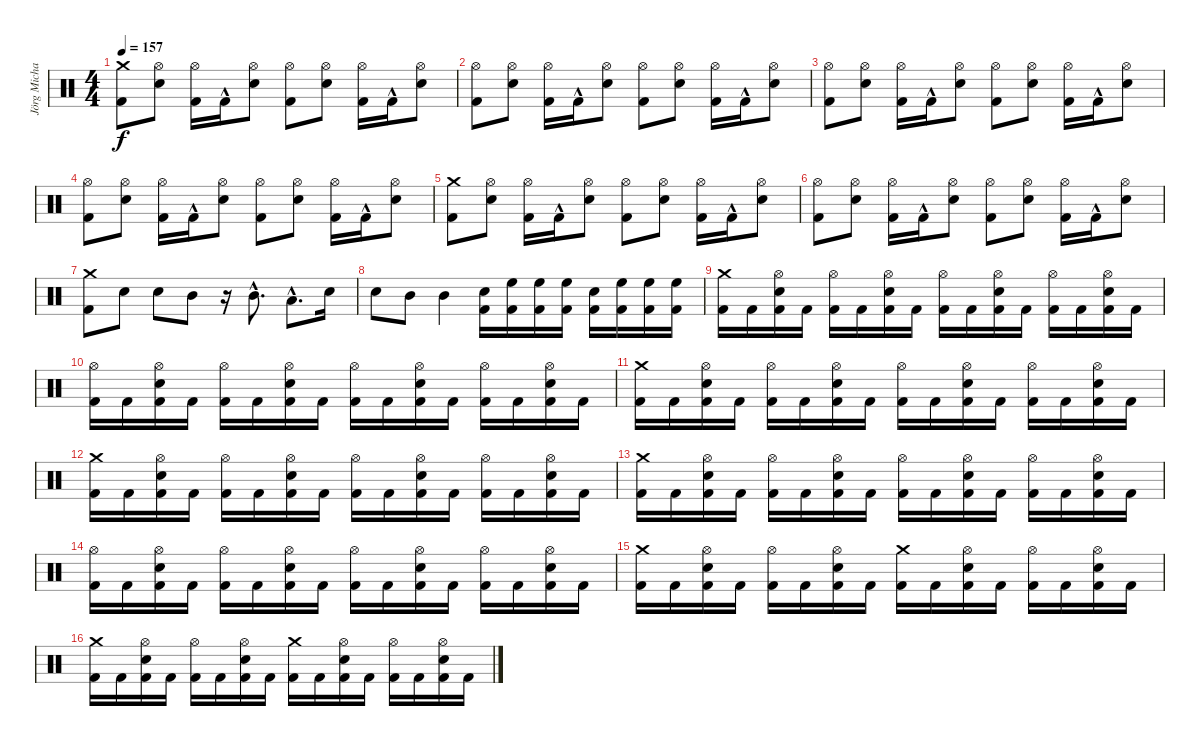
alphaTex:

\track ("Jörg Michael" "Jörg Micha") {instrument percussion}
\staff {score}
\articulation defaults
\ts (4 4)
\tempo 157
\clef neutral
\ks c
("Crash medium (hit)" "Kick (hit) 2").8{dy f} ("Snare (hit) 2" "Hi-Hat (open)").8 ("Kick (hit) 2" "Hi-Hat (open)").16 "Kick (hit) 2"{hac}.16 ("Snare (hit) 2" "Hi-Hat (open)").8 ("Kick (hit) 2" "Hi-Hat (open)").8 ("Snare (hit) 2" "Hi-Hat (open)").8 ("Kick (hit) 2" "Hi-Hat (open)").16 "Kick (hit) 2"{hac}.16 ("Snare (hit) 2" "Hi-Hat (open)").8 |
("Kick (hit) 2" "Hi-Hat (open)").8 ("Snare (hit) 2" "Hi-Hat (open)").8 ("Kick (hit) 2" "Hi-Hat (open)").16 "Kick (hit) 2"{hac}.16 ("Snare (hit) 2" "Hi-Hat (open)").8 ("Kick (hit) 2" "Hi-Hat (open)").8 ("Snare (hit) 2" "Hi-Hat (open)").8 ("Kick (hit) 2" "Hi-Hat (open)").16 "Kick (hit) 2"{hac}.16 ("Snare (hit) 2" "Hi-Hat (open)").8 |
("Kick (hit) 2" "Hi-Hat (open)").8 ("Snare (hit) 2" "Hi-Hat (open)").8 ("Kick (hit) 2" "Hi-Hat (open)").16 "Kick (hit) 2"{hac}.16 ("Snare (hit) 2" "Hi-Hat (open)").8 ("Kick (hit) 2" "Hi-Hat (open)").8 ("Snare (hit) 2" "Hi-Hat (open)").8 ("Kick (hit) 2" "Hi-Hat (open)").16 "Kick (hit) 2"{hac}.16 ("Snare (hit) 2" "Hi-Hat (open)").8 |
("Kick (hit) 2" "Hi-Hat (open)").8 ("Snare (hit) 2" "Hi-Hat (open)").8 ("Kick (hit) 2" "Hi-Hat (open)").16 "Kick (hit) 2"{hac}.16 ("Snare (hit) 2" "Hi-Hat (open)").8 ("Kick (hit) 2" "Hi-Hat (open)").8 ("Snare (hit) 2" "Hi-Hat (open)").8 ("Kick (hit) 2" "Hi-Hat (open)").16 "Kick (hit) 2"{hac}.16 ("Snare (hit) 2" "Hi-Hat (open)").8 |
("Crash medium (hit)" "Kick (hit) 2").8 ("Snare (hit) 2" "Hi-Hat (open)").8 ("Kick (hit) 2" "Hi-Hat (open)").16 "Kick (hit) 2"{hac}.16 ("Snare (hit) 2" "Hi-Hat (open)").8 ("Kick (hit) 2" "Hi-Hat (open)").8 ("Snare (hit) 2" "Hi-Hat (open)").8 ("Kick (hit) 2" "Hi-Hat (open)").16 "Kick (hit) 2"{hac}.16 ("Snare (hit) 2" "Hi-Hat (open)").8 |
("Kick (hit) 2" "Hi-Hat (open)").8 ("Snare (hit) 2" "Hi-Hat (open)").8 ("Kick (hit) 2" "Hi-Hat (open)").16 "Kick (hit) 2"{hac}.16 ("Snare (hit) 2" "Hi-Hat (open)").8 ("Kick (hit) 2" "Hi-Hat (open)").8 ("Snare (hit) 2" "Hi-Hat (open)").8 ("Kick (hit) 2" "Hi-Hat (open)").16 "Kick (hit) 2"{hac}.16 ("Snare (hit) 2" "Hi-Hat (open)").8 |
("Kick (hit) 2" "Crash medium (hit)").8 "Snare (hit) 2".8 "Snare (hit) 2".8 "Mid Tom (hit)".8 r.16 "Mid Tom (hit)"{hac}.8{d} "Low Tom (hit)"{hac}.8{d} "Snare (hit) 2".16 |
"Snare (hit) 2".8 "Mid Tom (hit)".8 "Mid Tom (hit)".4 ("Kick (hit) 2" "Snare (hit) 2").16 ("Kick (hit) 2" "High Floor Tom (hit)").16 ("Kick (hit) 2" "High Floor Tom (hit)").16 ("Kick (hit) 2" "High Floor Tom (hit)").16 ("Kick (hit) 2" "Snare (hit) 2").16 ("Kick (hit) 2" "High Floor Tom (hit)").16 ("Kick (hit) 2" "High Floor Tom (hit)").16 ("Kick (hit) 2" "High Floor Tom (hit)").16 |
("Crash medium (hit)" "Kick (hit) 2").16 "Kick (hit) 2".16 ("Hi-Hat (open)" "Snare (hit) 2" "Kick (hit) 2").16 "Kick (hit) 2".16 ("Hi-Hat (open)" "Kick (hit) 2").16 "Kick (hit) 2".16 ("Hi-Hat (open)" "Snare (hit) 2" "Kick (hit) 2").16 "Kick (hit) 2".16 ("Hi-Hat (open)" "Kick (hit) 2").16 "Kick (hit) 2".16 ("Hi-Hat (open)" "Snare (hit) 2" "Kick (hit) 2").16 "Kick (hit) 2".16 ("Hi-Hat (open)" "Kick (hit) 2").16 "Kick (hit) 2".16 ("Hi-Hat (open)" "Snare (hit) 2" "Kick (hit) 2").16 "Kick (hit) 2".16 |
("Hi-Hat (open)" "Kick (hit) 2").16 "Kick (hit) 2".16 ("Hi-Hat (open)" "Snare (hit) 2" "Kick (hit) 2").16 "Kick (hit) 2".16 ("Hi-Hat (open)" "Kick (hit) 2").16 "Kick (hit) 2".16 ("Hi-Hat (open)" "Snare (hit) 2" "Kick (hit) 2").16 "Kick (hit) 2".16 ("Hi-Hat (open)" "Kick (hit) 2").16 "Kick (hit) 2".16 ("Hi-Hat (open)" "Snare (hit) 2" "Kick (hit) 2").16 "Kick (hit) 2".16 ("Hi-Hat (open)" "Kick (hit) 2").16 "Kick (hit) 2".16 ("Hi-Hat (open)" "Snare (hit) 2" "Kick (hit) 2").16 "Kick (hit) 2".16 |
("Crash medium (hit)" "Kick (hit) 2").16 "Kick (hit) 2".16 ("Hi-Hat (open)" "Snare (hit) 2" "Kick (hit) 2").16 "Kick (hit) 2".16 ("Hi-Hat (open)" "Kick (hit) 2").16 "Kick (hit) 2".16 ("Hi-Hat (open)" "Snare (hit) 2" "Kick (hit) 2").16 "Kick (hit) 2".16 ("Hi-Hat (open)" "Kick (hit) 2").16 "Kick (hit) 2".16 ("Hi-Hat (open)" "Snare (hit) 2" "Kick (hit) 2").16 "Kick (hit) 2".16 ("Hi-Hat (open)" "Kick (hit) 2").16 "Kick (hit) 2".16 ("Hi-Hat (open)" "Snare (hit) 2" "Kick (hit) 2").16 "Kick (hit) 2".16 |
("Crash medium (hit)" "Kick (hit) 2").16 "Kick (hit) 2".16 ("Hi-Hat (open)" "Snare (hit) 2" "Kick (hit) 2").16 "Kick (hit) 2".16 ("Hi-Hat (open)" "Kick (hit) 2").16 "Kick (hit) 2".16 ("Hi-Hat (open)" "Snare (hit) 2" "Kick (hit) 2").16 "Kick (hit) 2".16 ("Hi-Hat (open)" "Kick (hit) 2").16 "Kick (hit) 2".16 ("Hi-Hat (open)" "Snare (hit) 2" "Kick (hit) 2").16 "Kick (hit) 2".16 ("Hi-Hat (open)" "Kick (hit) 2").16 "Kick (hit) 2".16 ("Hi-Hat (open)" "Snare (hit) 2" "Kick (hit) 2").16 "Kick (hit) 2".16 |
("Crash medium (hit)" "Kick (hit) 2").16 "Kick (hit) 2".16 ("Hi-Hat (open)" "Snare (hit) 2" "Kick (hit) 2").16 "Kick (hit) 2".16 ("Hi-Hat (open)" "Kick (hit) 2").16 "Kick (hit) 2".16 ("Hi-Hat (open)" "Snare (hit) 2" "Kick (hit) 2").16 "Kick (hit) 2".16 ("Hi-Hat (open)" "Kick (hit) 2").16 "Kick (hit) 2".16 ("Hi-Hat (open)" "Snare (hit) 2" "Kick (hit) 2").16 "Kick (hit) 2".16 ("Hi-Hat (open)" "Kick (hit) 2").16 "Kick (hit) 2".16 ("Hi-Hat (open)" "Snare (hit) 2" "Kick (hit) 2").16 "Kick (hit) 2".16 |
("Hi-Hat (open)" "Kick (hit) 2").16 "Kick (hit) 2".16 ("Hi-Hat (open)" "Snare (hit) 2" "Kick (hit) 2").16 "Kick (hit) 2".16 ("Hi-Hat (open)" "Kick (hit) 2").16 "Kick (hit) 2".16 ("Hi-Hat (open)" "Snare (hit) 2" "Kick (hit) 2").16 "Kick (hit) 2".16 ("Hi-Hat (open)" "Kick (hit) 2").16 "Kick (hit) 2".16 ("Hi-Hat (open)" "Snare (hit) 2" "Kick (hit) 2").16 "Kick (hit) 2".16 ("Hi-Hat (open)" "Kick (hit) 2").16 "Kick (hit) 2".16 ("Hi-Hat (open)" "Snare (hit) 2" "Kick (hit) 2").16 "Kick (hit) 2".16 |
("Crash medium (hit)" "Kick (hit) 2").16 "Kick (hit) 2".16 ("Hi-Hat (open)" "Snare (hit) 2" "Kick (hit) 2").16 "Kick (hit) 2".16 ("Hi-Hat (open)" "Kick (hit) 2").16 "Kick (hit) 2".16 ("Hi-Hat (open)" "Snare (hit) 2" "Kick (hit) 2").16 "Kick (hit) 2".16 ("Crash medium (hit)" "Kick (hit) 2").16 "Kick (hit) 2".16 ("Hi-Hat (open)" "Snare (hit) 2" "Kick (hit) 2").16 "Kick (hit) 2".16 ("Hi-Hat (open)" "Kick (hit) 2").16 "Kick (hit) 2".16 ("Hi-Hat (open)" "Snare (hit) 2" "Kick (hit) 2").16 "Kick (hit) 2".16 |
("Crash medium (hit)" "Kick (hit) 2").16 "Kick (hit) 2".16 ("Hi-Hat (open)" "Snare (hit) 2" "Kick (hit) 2").16 "Kick (hit) 2".16 ("Hi-Hat (open)" "Kick (hit) 2").16 "Kick (hit) 2".16 ("Hi-Hat (open)" "Snare (hit) 2" "Kick (hit) 2").16 "Kick (hit) 2".16 ("Crash medium (hit)" "Kick (hit) 2").16 "Kick (hit) 2".16 ("Hi-Hat (open)" "Snare (hit) 2" "Kick (hit) 2").16 "Kick (hit) 2".16 ("Hi-Hat (open)" "Kick (hit) 2").16 "Kick (hit) 2".16 ("Hi-Hat (open)" "Snare (hit) 2" "Kick (hit) 2").16 "Kick (hit) 2".16
